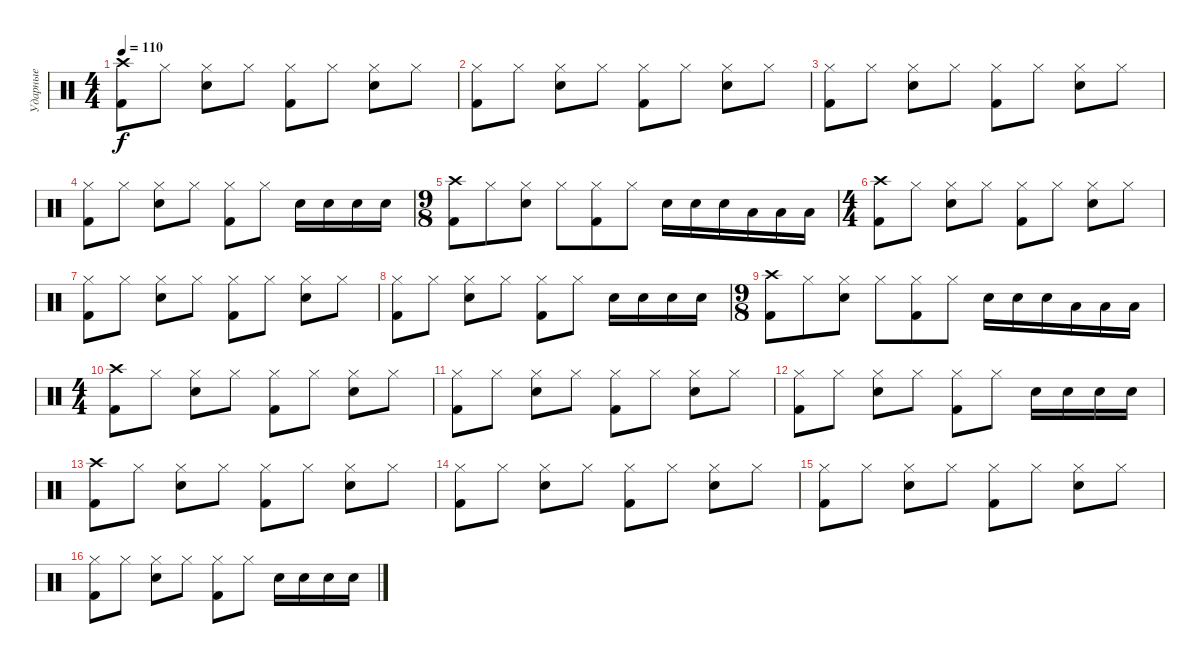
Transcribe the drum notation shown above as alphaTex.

\track ("Ударные" "Ударные") {instrument percussion}
\staff {score}
\articulation defaults
\ts (4 4)
\tempo 110
\clef neutral
\ks c
("Crash high (hit)" "Kick (hit) 2").8{dy f} "Hi-Hat (closed)".8 ("Electric Snare (hit)" "Hi-Hat (closed)").8 "Hi-Hat (closed)".8 ("Kick (hit) 2" "Hi-Hat (closed)").8 "Hi-Hat (closed)".8 ("Electric Snare (hit)" "Hi-Hat (closed)").8 "Hi-Hat (closed)".8 |
("Hi-Hat (closed)" "Kick (hit) 2").8 "Hi-Hat (closed)".8 ("Electric Snare (hit)" "Hi-Hat (closed)").8 "Hi-Hat (closed)".8 ("Kick (hit) 2" "Hi-Hat (closed)").8 "Hi-Hat (closed)".8 ("Electric Snare (hit)" "Hi-Hat (closed)").8 "Hi-Hat (closed)".8 |
("Hi-Hat (closed)" "Kick (hit) 2").8 "Hi-Hat (closed)".8 ("Electric Snare (hit)" "Hi-Hat (closed)").8 "Hi-Hat (closed)".8 ("Kick (hit) 2" "Hi-Hat (closed)").8 "Hi-Hat (closed)".8 ("Electric Snare (hit)" "Hi-Hat (closed)").8 "Hi-Hat (closed)".8 |
("Hi-Hat (closed)" "Kick (hit) 2").8 "Hi-Hat (closed)".8 ("Electric Snare (hit)" "Hi-Hat (closed)").8 "Hi-Hat (closed)".8 ("Kick (hit) 2" "Hi-Hat (closed)").8 "Hi-Hat (closed)".8 "Electric Snare (hit)".16 "Electric Snare (hit)".16 "Electric Snare (hit)".16 "Electric Snare (hit)".16 |
\ts (9 8)
("Crash high (hit)" "Kick (hit) 2").8 "Hi-Hat (closed)".8 ("Electric Snare (hit)" "Hi-Hat (closed)").8 "Hi-Hat (closed)".8 ("Kick (hit) 2" "Hi-Hat (closed)").8 "Hi-Hat (closed)".8 "Electric Snare (hit)".16 "Electric Snare (hit)".16 "Electric Snare (hit)".16 "Low Tom (hit)".16 "Low Tom (hit)".16 "Low Tom (hit)".16 |
\ts (4 4)
("Crash high (hit)" "Kick (hit) 2").8 "Hi-Hat (closed)".8 ("Electric Snare (hit)" "Hi-Hat (closed)").8 "Hi-Hat (closed)".8 ("Kick (hit) 2" "Hi-Hat (closed)").8 "Hi-Hat (closed)".8 ("Electric Snare (hit)" "Hi-Hat (closed)").8 "Hi-Hat (closed)".8 |
("Hi-Hat (closed)" "Kick (hit) 2").8 "Hi-Hat (closed)".8 ("Electric Snare (hit)" "Hi-Hat (closed)").8 "Hi-Hat (closed)".8 ("Kick (hit) 2" "Hi-Hat (closed)").8 "Hi-Hat (closed)".8 ("Electric Snare (hit)" "Hi-Hat (closed)").8 "Hi-Hat (closed)".8 |
("Hi-Hat (closed)" "Kick (hit) 2").8 "Hi-Hat (closed)".8 ("Electric Snare (hit)" "Hi-Hat (closed)").8 "Hi-Hat (closed)".8 ("Kick (hit) 2" "Hi-Hat (closed)").8 "Hi-Hat (closed)".8 "Electric Snare (hit)".16 "Electric Snare (hit)".16 "Electric Snare (hit)".16 "Electric Snare (hit)".16 |
\ts (9 8)
("Crash high (hit)" "Kick (hit) 2").8 "Hi-Hat (closed)".8 ("Electric Snare (hit)" "Hi-Hat (closed)").8 "Hi-Hat (closed)".8 ("Kick (hit) 2" "Hi-Hat (closed)").8 "Hi-Hat (closed)".8 "Electric Snare (hit)".16 "Electric Snare (hit)".16 "Electric Snare (hit)".16 "Low Tom (hit)".16 "Low Tom (hit)".16 "Low Tom (hit)".16 |
\ts (4 4)
("Crash high (hit)" "Kick (hit) 2").8 "Hi-Hat (closed)".8 ("Electric Snare (hit)" "Hi-Hat (closed)").8 "Hi-Hat (closed)".8 ("Kick (hit) 2" "Hi-Hat (closed)").8 "Hi-Hat (closed)".8 ("Electric Snare (hit)" "Hi-Hat (closed)").8 "Hi-Hat (closed)".8 |
("Hi-Hat (closed)" "Kick (hit) 2").8 "Hi-Hat (closed)".8 ("Electric Snare (hit)" "Hi-Hat (closed)").8 "Hi-Hat (closed)".8 ("Kick (hit) 2" "Hi-Hat (closed)").8 "Hi-Hat (closed)".8 ("Electric Snare (hit)" "Hi-Hat (closed)").8 "Hi-Hat (closed)".8 |
("Hi-Hat (closed)" "Kick (hit) 2").8 "Hi-Hat (closed)".8 ("Electric Snare (hit)" "Hi-Hat (closed)").8 "Hi-Hat (closed)".8 ("Kick (hit) 2" "Hi-Hat (closed)").8 "Hi-Hat (closed)".8 "Electric Snare (hit)".16 "Electric Snare (hit)".16 "Electric Snare (hit)".16 "Electric Snare (hit)".16 |
("Crash high (hit)" "Kick (hit) 2").8 "Hi-Hat (closed)".8 ("Electric Snare (hit)" "Hi-Hat (closed)").8 "Hi-Hat (closed)".8 ("Kick (hit) 2" "Hi-Hat (closed)").8 "Hi-Hat (closed)".8 ("Electric Snare (hit)" "Hi-Hat (closed)").8 "Hi-Hat (closed)".8 |
("Hi-Hat (closed)" "Kick (hit) 2").8 "Hi-Hat (closed)".8 ("Electric Snare (hit)" "Hi-Hat (closed)").8 "Hi-Hat (closed)".8 ("Kick (hit) 2" "Hi-Hat (closed)").8 "Hi-Hat (closed)".8 ("Electric Snare (hit)" "Hi-Hat (closed)").8 "Hi-Hat (closed)".8 |
("Hi-Hat (closed)" "Kick (hit) 2").8 "Hi-Hat (closed)".8 ("Electric Snare (hit)" "Hi-Hat (closed)").8 "Hi-Hat (closed)".8 ("Kick (hit) 2" "Hi-Hat (closed)").8 "Hi-Hat (closed)".8 ("Electric Snare (hit)" "Hi-Hat (closed)").8 "Hi-Hat (closed)".8 |
("Hi-Hat (closed)" "Kick (hit) 2").8 "Hi-Hat (closed)".8 ("Electric Snare (hit)" "Hi-Hat (closed)").8 "Hi-Hat (closed)".8 ("Kick (hit) 2" "Hi-Hat (closed)").8 "Hi-Hat (closed)".8 "Electric Snare (hit)".16 "Electric Snare (hit)".16 "Electric Snare (hit)".16 "Electric Snare (hit)".16
